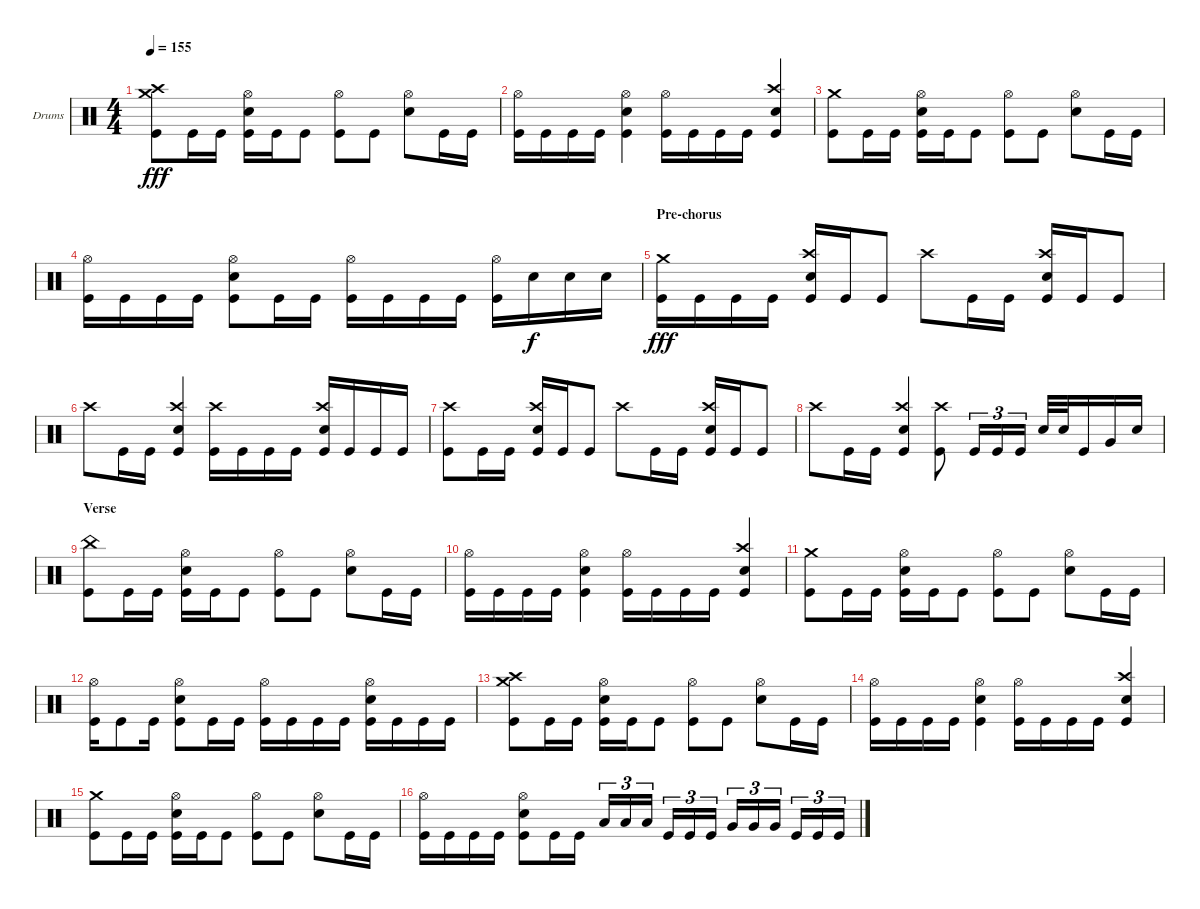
\defaultSystemsLayout 4
\bracketExtendMode groupsimilarinstruments
\firstSystemTrackNameOrientation horizontal
\otherSystemsTrackNameOrientation horizontal
\track ("Alex Rudinger" "Drums") {instrument percussion}
\staff {score}
\articulation defaults
\ts (4 4)
\tempo 155
\clef neutral
\ks c
("Kick (hit)" "Crash high (hit)" "Crash medium (hit)").8{dy fff} "Kick (hit)".16 "Kick (hit)".16 ("Kick (hit)" "Snare (hit) 2" "Hi-Hat (open)").16 "Kick (hit)".16 "Kick (hit)".8 ("Kick (hit)" "Hi-Hat (open)").8 "Kick (hit)".8 ("Snare (hit) 2" "Hi-Hat (open)").8 "Kick (hit)".16 "Kick (hit)".16 |
("Kick (hit)" "Hi-Hat (open)").16 "Kick (hit)".16 "Kick (hit)".16 "Kick (hit)".16 ("Kick (hit)" "Snare (hit) 2" "Hi-Hat (open)").4 ("Kick (hit)" "Hi-Hat (open)").16 "Kick (hit)".16 "Kick (hit)".16 "Kick (hit)".16 ("Kick (hit)" "Snare (hit) 2" "Crash high (hit)").4 |
("Kick (hit)" "Crash medium (hit)").8 "Kick (hit)".16 "Kick (hit)".16 ("Kick (hit)" "Snare (hit) 2" "Hi-Hat (open)").16 "Kick (hit)".16 "Kick (hit)".8 ("Kick (hit)" "Hi-Hat (open)").8 "Kick (hit)".8 ("Snare (hit) 2" "Hi-Hat (open)").8 "Kick (hit)".16 "Kick (hit)".16 |
("Kick (hit)" "Hi-Hat (open)").16 "Kick (hit)".16 "Kick (hit)".16 "Kick (hit)".16 ("Kick (hit)" "Snare (hit) 2" "Hi-Hat (open)").8 "Kick (hit)".16 "Kick (hit)".16 ("Kick (hit)" "Hi-Hat (open)").16 "Kick (hit)".16 "Kick (hit)".16 "Kick (hit)".16 ("Kick (hit)" "Hi-Hat (open)").16 "Snare (hit) 2".16{dy f} "Snare (hit) 2".16 "Snare (hit) 2".16 |
\section ("" "Pre-chorus")
("Kick (hit)" "Crash medium (hit)").16{dy fff} "Kick (hit)".16 "Kick (hit)".16 "Kick (hit)".16 ("Kick (hit)" "Snare (hit) 2" "Crash high (hit)").16 "Kick (hit)".16 "Kick (hit)".8 "Crash high (hit)".8 "Kick (hit)".16 "Kick (hit)".16 ("Kick (hit)" "Snare (hit) 2" "Crash high (hit)").16 "Kick (hit)".16 "Kick (hit)".8 |
"Crash high (hit)".8 "Kick (hit)".16 "Kick (hit)".16 ("Kick (hit)" "Snare (hit) 2" "Crash high (hit)").4 ("Kick (hit)" "Crash high (hit)").16 "Kick (hit)".16 "Kick (hit)".16 "Kick (hit)".16 ("Kick (hit)" "Snare (hit) 2" "Crash high (hit)").16 "Kick (hit)".16 "Kick (hit)".16 "Kick (hit)".16 |
("Kick (hit)" "Crash high (hit)").8 "Kick (hit)".16 "Kick (hit)".16 ("Kick (hit)" "Snare (hit) 2" "Crash high (hit)").16 "Kick (hit)".16 "Kick (hit)".8 "Crash high (hit)".8 "Kick (hit)".16 "Kick (hit)".16 ("Snare (hit) 2" "Kick (hit)" "Crash high (hit)").16 "Kick (hit)".16 "Kick (hit)".8 |
"Crash high (hit)".8 "Kick (hit)".16 "Kick (hit)".16 ("Snare (hit) 2" "Kick (hit)" "Crash high (hit)").4 ("Kick (hit)" "Crash high (hit)").8 "Kick (hit)".16{tu (3 2)} "Kick (hit)".16{tu (3 2)} "Kick (hit)".16{tu (3 2)} "Snare (hit) 2".32 "Snare (hit) 2".32 "Kick (hit)".16 "Very Low Tom (hit)".16 "Snare (hit) 2".16 |
\section ("" "Verse")
("Kick (hit)" "China (hit)").8 "Kick (hit)".16 "Kick (hit)".16 ("Kick (hit)" "Snare (hit) 2" "Hi-Hat (open)").16 "Kick (hit)".16 "Kick (hit)".8 ("Kick (hit)" "Hi-Hat (open)").8 "Kick (hit)".8 ("Snare (hit) 2" "Hi-Hat (open)").8 "Kick (hit)".16 "Kick (hit)".16 |
("Kick (hit)" "Hi-Hat (open)").16 "Kick (hit)".16 "Kick (hit)".16 "Kick (hit)".16 ("Kick (hit)" "Snare (hit) 2" "Hi-Hat (open)").4 ("Kick (hit)" "Hi-Hat (open)").16 "Kick (hit)".16 "Kick (hit)".16 "Kick (hit)".16 ("Kick (hit)" "Snare (hit) 2" "Crash high (hit)").4 |
("Kick (hit)" "Crash medium (hit)").8 "Kick (hit)".16 "Kick (hit)".16 ("Kick (hit)" "Snare (hit) 2" "Hi-Hat (open)").16 "Kick (hit)".16 "Kick (hit)".8 ("Kick (hit)" "Hi-Hat (open)").8 "Kick (hit)".8 ("Snare (hit) 2" "Hi-Hat (open)").8 "Kick (hit)".16 "Kick (hit)".16 |
("Kick (hit)" "Hi-Hat (open)").16 "Kick (hit)".8 "Kick (hit)".16 ("Kick (hit)" "Snare (hit) 2" "Hi-Hat (open)").8 "Kick (hit)".16 "Kick (hit)".16 ("Kick (hit)" "Hi-Hat (open)").16 "Kick (hit)".16 "Kick (hit)".16 "Kick (hit)".16 ("Kick (hit)" "Snare (hit) 2" "Hi-Hat (open)").16 "Kick (hit)".16 "Kick (hit)".16 "Kick (hit)".16 |
("Kick (hit)" "Crash high (hit)" "Crash medium (hit)").8 "Kick (hit)".16 "Kick (hit)".16 ("Kick (hit)" "Snare (hit) 2" "Hi-Hat (open)").16 "Kick (hit)".16 "Kick (hit)".8 ("Kick (hit)" "Hi-Hat (open)").8 "Kick (hit)".8 ("Snare (hit) 2" "Hi-Hat (open)").8 "Kick (hit)".16 "Kick (hit)".16 |
("Kick (hit)" "Hi-Hat (open)").16 "Kick (hit)".16 "Kick (hit)".16 "Kick (hit)".16 ("Kick (hit)" "Snare (hit) 2" "Hi-Hat (open)").4 ("Kick (hit)" "Hi-Hat (open)").16 "Kick (hit)".16 "Kick (hit)".16 "Kick (hit)".16 ("Kick (hit)" "Snare (hit) 2" "Crash high (hit)").4 |
("Kick (hit)" "Crash medium (hit)").8 "Kick (hit)".16 "Kick (hit)".16 ("Kick (hit)" "Snare (hit) 2" "Hi-Hat (open)").16 "Kick (hit)".16 "Kick (hit)".8 ("Kick (hit)" "Hi-Hat (open)").8 "Kick (hit)".8 ("Snare (hit) 2" "Hi-Hat (open)").8 "Kick (hit)".16 "Kick (hit)".16 |
("Kick (hit)" "Hi-Hat (open)").16 "Kick (hit)".16 "Kick (hit)".16 "Kick (hit)".16 ("Kick (hit)" "Snare (hit) 2" "Hi-Hat (open)").8 "Kick (hit)".16 "Kick (hit)".16 "Low Tom (hit)".16{tu (3 2)} "Low Tom (hit)".16{tu (3 2)} "Low Tom (hit)".16{tu (3 2)} "Kick (hit)".16{tu (3 2)} "Kick (hit)".16{tu (3 2)} "Kick (hit)".16{tu (3 2)} "Very Low Tom (hit)".16{tu (3 2)} "Very Low Tom (hit)".16{tu (3 2)} "Very Low Tom (hit)".16{tu (3 2)} "Kick (hit)".16{tu (3 2)} "Kick (hit)".16{tu (3 2)} "Kick (hit)".16{tu (3 2)}
